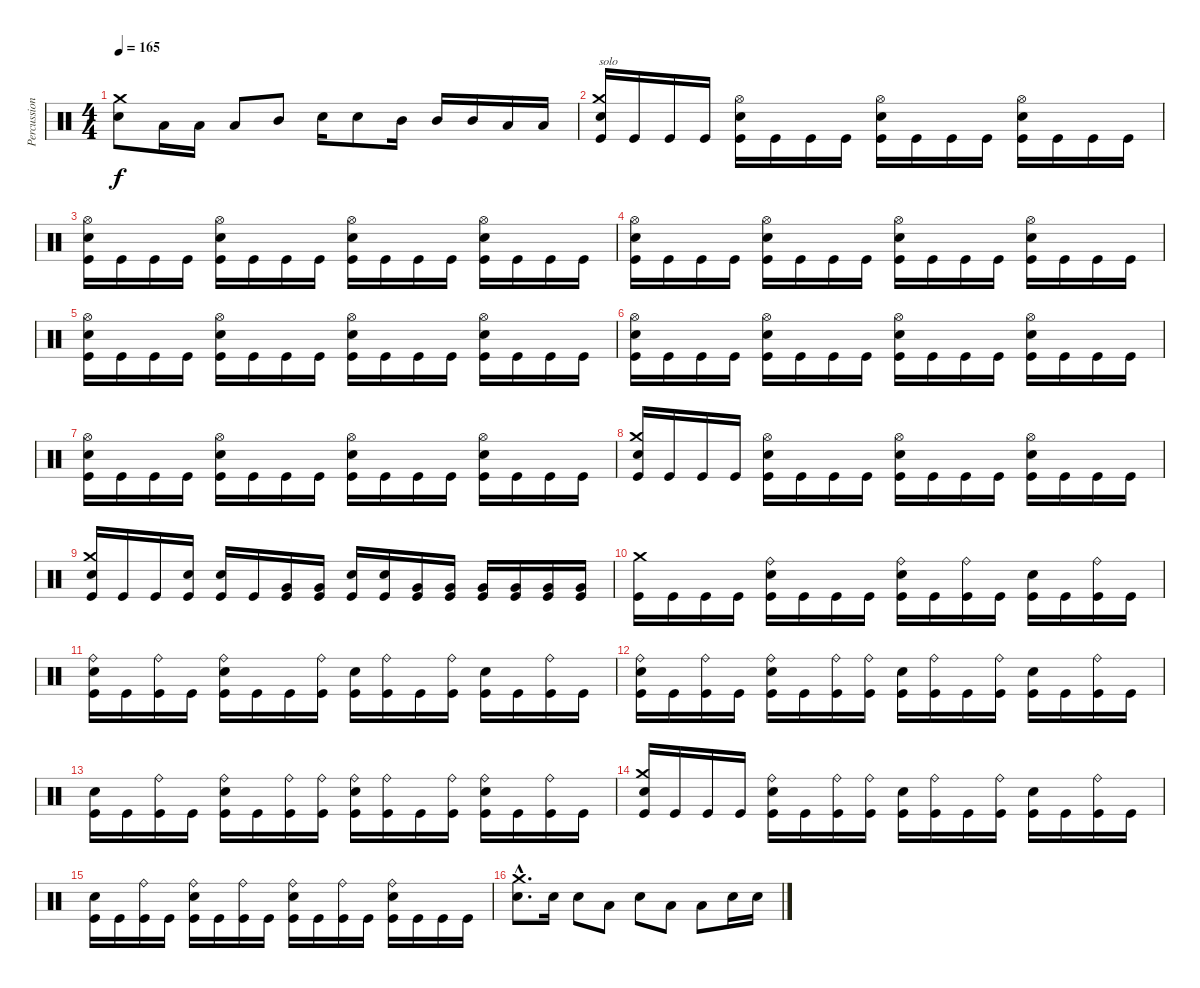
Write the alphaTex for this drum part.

\track ("Percussions" "Percussion") {instrument percussion}
\staff {score}
\articulation defaults
\ts (4 4)
\tempo 165
\clef neutral
\ks c
("Electric Snare (hit)" "Crash medium (hit)").8{dy f} "Low Tom (hit)".16 "Low Tom (hit)".16 "Low Tom (hit)".8 "Mid Tom (hit)".8 "Electric Snare (hit)".16 "Electric Snare (hit)".8 "Mid Tom (hit)".16 "Mid Tom (hit)".16 "Mid Tom (hit)".16 "Low Tom (hit)".16 "Low Tom (hit)".16 |
("Kick (hit)" "Electric Snare (hit)" "Crash medium (hit)").16{txt "solo"} "Kick (hit)".16 "Kick (hit)".16 "Kick (hit)".16 ("Kick (hit)" "Electric Snare (hit)" "Hi-Hat (open)").16 "Kick (hit)".16 "Kick (hit)".16 "Kick (hit)".16 ("Kick (hit)" "Electric Snare (hit)" "Hi-Hat (open)").16 "Kick (hit)".16 "Kick (hit)".16 "Kick (hit)".16 ("Kick (hit)" "Electric Snare (hit)" "Hi-Hat (open)").16 "Kick (hit)".16 "Kick (hit)".16 "Kick (hit)".16 |
("Kick (hit)" "Electric Snare (hit)" "Hi-Hat (open)").16 "Kick (hit)".16 "Kick (hit)".16 "Kick (hit)".16 ("Kick (hit)" "Electric Snare (hit)" "Hi-Hat (open)").16 "Kick (hit)".16 "Kick (hit)".16 "Kick (hit)".16 ("Kick (hit)" "Electric Snare (hit)" "Hi-Hat (open)").16 "Kick (hit)".16 "Kick (hit)".16 "Kick (hit)".16 ("Kick (hit)" "Electric Snare (hit)" "Hi-Hat (open)").16 "Kick (hit)".16 "Kick (hit)".16 "Kick (hit)".16 |
("Kick (hit)" "Electric Snare (hit)" "Hi-Hat (open)").16 "Kick (hit)".16 "Kick (hit)".16 "Kick (hit)".16 ("Kick (hit)" "Electric Snare (hit)" "Hi-Hat (open)").16 "Kick (hit)".16 "Kick (hit)".16 "Kick (hit)".16 ("Kick (hit)" "Electric Snare (hit)" "Hi-Hat (open)").16 "Kick (hit)".16 "Kick (hit)".16 "Kick (hit)".16 ("Kick (hit)" "Electric Snare (hit)" "Hi-Hat (open)").16 "Kick (hit)".16 "Kick (hit)".16 "Kick (hit)".16 |
("Kick (hit)" "Electric Snare (hit)" "Hi-Hat (open)").16 "Kick (hit)".16 "Kick (hit)".16 "Kick (hit)".16 ("Kick (hit)" "Electric Snare (hit)" "Hi-Hat (open)").16 "Kick (hit)".16 "Kick (hit)".16 "Kick (hit)".16 ("Kick (hit)" "Electric Snare (hit)" "Hi-Hat (open)").16 "Kick (hit)".16 "Kick (hit)".16 "Kick (hit)".16 ("Kick (hit)" "Electric Snare (hit)" "Hi-Hat (open)").16 "Kick (hit)".16 "Kick (hit)".16 "Kick (hit)".16 |
("Kick (hit)" "Electric Snare (hit)" "Hi-Hat (open)").16 "Kick (hit)".16 "Kick (hit)".16 "Kick (hit)".16 ("Kick (hit)" "Electric Snare (hit)" "Hi-Hat (open)").16 "Kick (hit)".16 "Kick (hit)".16 "Kick (hit)".16 ("Kick (hit)" "Electric Snare (hit)" "Hi-Hat (open)").16 "Kick (hit)".16 "Kick (hit)".16 "Kick (hit)".16 ("Kick (hit)" "Electric Snare (hit)" "Hi-Hat (open)").16 "Kick (hit)".16 "Kick (hit)".16 "Kick (hit)".16 |
("Kick (hit)" "Electric Snare (hit)" "Hi-Hat (open)").16 "Kick (hit)".16 "Kick (hit)".16 "Kick (hit)".16 ("Kick (hit)" "Electric Snare (hit)" "Hi-Hat (open)").16 "Kick (hit)".16 "Kick (hit)".16 "Kick (hit)".16 ("Kick (hit)" "Electric Snare (hit)" "Hi-Hat (open)").16 "Kick (hit)".16 "Kick (hit)".16 "Kick (hit)".16 ("Kick (hit)" "Electric Snare (hit)" "Hi-Hat (open)").16 "Kick (hit)".16 "Kick (hit)".16 "Kick (hit)".16 |
("Kick (hit)" "Electric Snare (hit)" "Crash medium (hit)").16 "Kick (hit)".16 "Kick (hit)".16 "Kick (hit)".16 ("Kick (hit)" "Electric Snare (hit)" "Hi-Hat (open)").16 "Kick (hit)".16 "Kick (hit)".16 "Kick (hit)".16 ("Kick (hit)" "Electric Snare (hit)" "Hi-Hat (open)").16 "Kick (hit)".16 "Kick (hit)".16 "Kick (hit)".16 ("Kick (hit)" "Electric Snare (hit)" "Hi-Hat (open)").16 "Kick (hit)".16 "Kick (hit)".16 "Kick (hit)".16 |
("Kick (hit)" "Electric Snare (hit)" "Crash medium (hit)").16 "Kick (hit)".16 "Kick (hit)".16 ("Kick (hit)" "Electric Snare (hit)").16 ("Kick (hit)" "Electric Snare (hit)").16 "Kick (hit)".16 ("Kick (hit)" "Very Low Tom (hit)").16 ("Kick (hit)" "Very Low Tom (hit)").16 ("Kick (hit)" "Electric Snare (hit)").16 ("Kick (hit)" "Electric Snare (hit)").16 ("Kick (hit)" "Very Low Tom (hit)").16 ("Kick (hit)" "Very Low Tom (hit)").16 ("Kick (hit)" "Very Low Tom (hit)").16 ("Kick (hit)" "Very Low Tom (hit)").16 ("Kick (hit)" "Very Low Tom (hit)").16 ("Kick (hit)" "Very Low Tom (hit)").16 |
("Kick (hit)" "Crash medium (hit)").16 "Kick (hit)".16 "Kick (hit)".16 "Kick (hit)".16 ("Kick (hit)" "Electric Snare (hit)" "Ride (bell)").16 "Kick (hit)".16 "Kick (hit)".16 "Kick (hit)".16 ("Kick (hit)" "Electric Snare (hit)" "Ride (bell)").16 "Kick (hit)".16 ("Kick (hit)" "Ride (bell)").16 "Kick (hit)".16 ("Kick (hit)" "Electric Snare (hit)").16 "Kick (hit)".16 ("Kick (hit)" "Ride (bell)").16 "Kick (hit)".16 |
("Kick (hit)" "Electric Snare (hit)" "Ride (bell)").16 "Kick (hit)".16 ("Kick (hit)" "Ride (bell)").16 "Kick (hit)".16 ("Kick (hit)" "Electric Snare (hit)" "Ride (bell)").16 "Kick (hit)".16 "Kick (hit)".16 ("Kick (hit)" "Ride (bell)").16 ("Kick (hit)" "Electric Snare (hit)").16 ("Kick (hit)" "Ride (bell)").16 "Kick (hit)".16 ("Kick (hit)" "Ride (bell)").16 ("Kick (hit)" "Electric Snare (hit)").16 "Kick (hit)".16 ("Kick (hit)" "Ride (bell)").16 "Kick (hit)".16 |
("Kick (hit)" "Electric Snare (hit)" "Ride (bell)").16 "Kick (hit)".16 ("Kick (hit)" "Ride (bell)").16 "Kick (hit)".16 ("Kick (hit)" "Electric Snare (hit)" "Ride (bell)").16 "Kick (hit)".16 ("Kick (hit)" "Ride (bell)").16 ("Kick (hit)" "Ride (bell)").16 ("Kick (hit)" "Electric Snare (hit)").16 ("Kick (hit)" "Ride (bell)").16 "Kick (hit)".16 ("Kick (hit)" "Ride (bell)").16 ("Kick (hit)" "Electric Snare (hit)").16 "Kick (hit)".16 ("Kick (hit)" "Ride (bell)").16 "Kick (hit)".16 |
("Kick (hit)" "Electric Snare (hit)").16 "Kick (hit)".16 ("Kick (hit)" "Ride (bell)").16 "Kick (hit)".16 ("Kick (hit)" "Electric Snare (hit)" "Ride (bell)").16 "Kick (hit)".16 ("Kick (hit)" "Ride (bell)").16 ("Kick (hit)" "Ride (bell)").16 ("Kick (hit)" "Electric Snare (hit)" "Ride (bell)").16 ("Kick (hit)" "Ride (bell)").16 "Kick (hit)".16 ("Kick (hit)" "Ride (bell)").16 ("Kick (hit)" "Electric Snare (hit)" "Ride (bell)").16 "Kick (hit)".16 ("Kick (hit)" "Ride (bell)").16 "Kick (hit)".16 |
("Kick (hit)" "Electric Snare (hit)" "Crash medium (hit)").16 "Kick (hit)".16 "Kick (hit)".16 "Kick (hit)".16 ("Kick (hit)" "Electric Snare (hit)" "Ride (bell)").16 "Kick (hit)".16 ("Kick (hit)" "Ride (bell)").16 ("Kick (hit)" "Ride (bell)").16 ("Kick (hit)" "Electric Snare (hit)").16 ("Kick (hit)" "Ride (bell)").16 "Kick (hit)".16 ("Kick (hit)" "Ride (bell)").16 ("Kick (hit)" "Electric Snare (hit)").16 "Kick (hit)".16 ("Kick (hit)" "Ride (bell)").16 "Kick (hit)".16 |
("Kick (hit)" "Electric Snare (hit)").16 "Kick (hit)".16 ("Kick (hit)" "Ride (bell)").16 "Kick (hit)".16 ("Kick (hit)" "Electric Snare (hit)" "Ride (bell)").16 "Kick (hit)".16 ("Kick (hit)" "Ride (bell)").16 "Kick (hit)".16 ("Kick (hit)" "Electric Snare (hit)" "Ride (bell)").16 "Kick (hit)".16 ("Kick (hit)" "Ride (bell)").16 "Kick (hit)".16 ("Kick (hit)" "Electric Snare (hit)" "Ride (bell)").16 "Kick (hit)".16 "Kick (hit)".16 "Kick (hit)".16 |
("Electric Snare (hit)"{hac} "Crash medium (hit)"{hac}).8{d} "Electric Snare (hit)".16 "Electric Snare (hit)".8 "Low Tom (hit)".8 "Electric Snare (hit)".8 "Low Tom (hit)".8 "Low Tom (hit)".8 "Electric Snare (hit)".16 "Electric Snare (hit)".16
